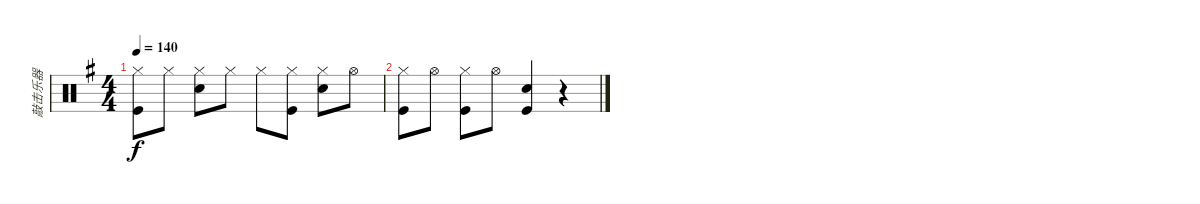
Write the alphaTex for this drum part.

\track ("敲击乐器" "敲击乐器") {instrument percussion}
\staff {score}
\articulation defaults
\ts (4 4)
\tempo 140
\clef neutral
\ks g
("Hi-Hat (closed)" "Kick (hit)").8{dy f} "Hi-Hat (closed)".8 ("Hi-Hat (closed)" "Snare (hit) 2").8 "Hi-Hat (closed)".8 "Hi-Hat (closed)".8 ("Hi-Hat (closed)" "Kick (hit)").8 ("Hi-Hat (closed)" "Snare (hit) 2").8 "Hi-Hat (open)".8 |
("Hi-Hat (closed)" "Kick (hit)").8 "Hi-Hat (open)".8 ("Hi-Hat (closed)" "Kick (hit)").8 "Hi-Hat (open)".8 ("Snare (hit) 2" "Kick (hit)").4 r.4
